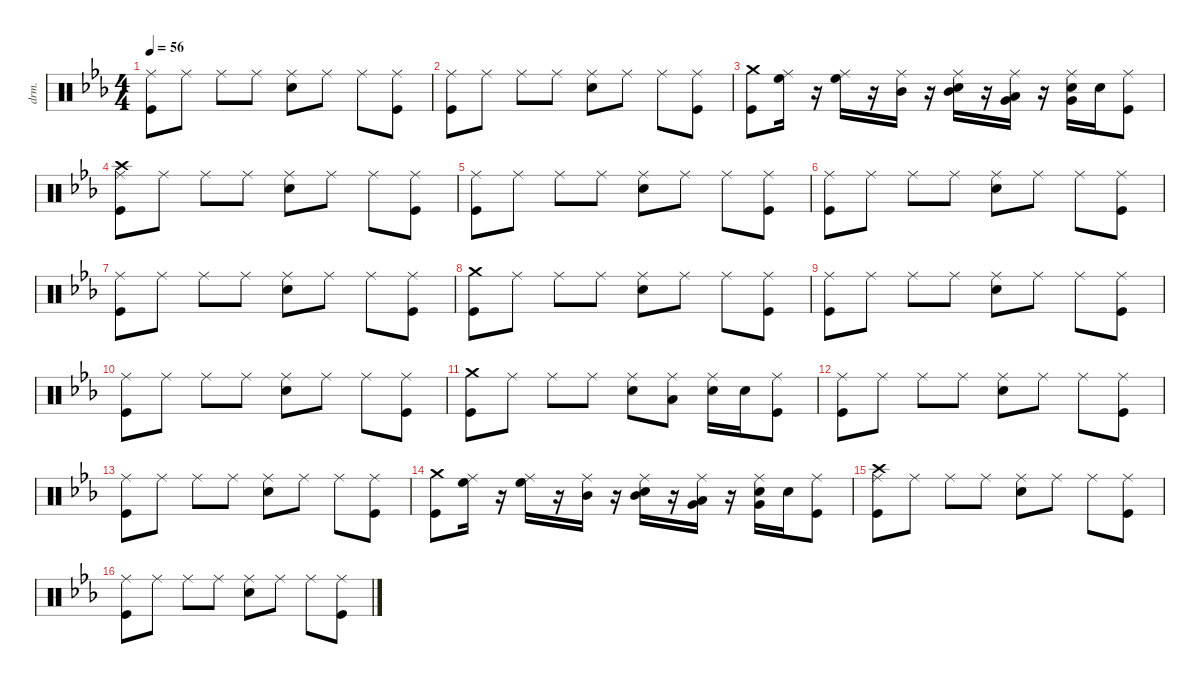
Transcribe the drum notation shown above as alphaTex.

\defaultSystemsLayout 4
\hideDynamics
\bracketExtendMode groupsimilarinstruments
\otherSystemsTrackNameOrientation horizontal
\track ("Percussion" "drm.") {instrument percussion}
\staff {score}
\articulation defaults
\ts (4 4)
\tempo 56
\clef neutral
\ks cminor
("Ride (middle)"{acc forcenatural} "Kick (hit)"{acc forcenatural}).8{dy f beam Down} "Ride (middle)"{acc forcenatural}.8{beam Down} "Ride (middle)"{acc forcenatural}.8{beam Down} "Ride (middle)"{acc forcenatural}.8{beam Down} ("Snare (hit) 2"{acc forcenatural} "Ride (middle)"{acc forcenatural}).8{beam Down} "Ride (middle)"{acc forcenatural}.8{beam Down} "Ride (middle)"{acc forcenatural}.8{beam Down} ("Kick (hit)"{acc forcenatural} "Ride (middle)"{acc forcenatural}).8{beam Down} |
("Ride (middle)"{acc forcenatural} "Kick (hit)"{acc forcenatural}).8{beam Down} "Ride (middle)"{acc forcenatural}.8{beam Down} "Ride (middle)"{acc forcenatural}.8{beam Down} "Ride (middle)"{acc forcenatural}.8{beam Down} ("Snare (hit) 2"{acc forcenatural} "Ride (middle)"{acc forcenatural}).8{beam Down} "Ride (middle)"{acc forcenatural}.8{beam Down} "Ride (middle)"{acc forcenatural}.8{beam Down} ("Kick (hit)"{acc forcenatural} "Ride (middle)"{acc forcenatural}).8{beam Down} |
("Crash medium (hit)"{acc forcenatural} "Kick (hit)"{acc forcenatural}).8{beam Down} ("High Floor Tom (hit)"{acc forcenatural} "Ride (middle)"{acc forcenatural}).16{beam Down} r.16{beam Down} ("High Floor Tom (hit)"{acc forcenatural} "Ride (middle)"{acc forcenatural}).16{beam Down} r.16{beam Down} ("Mid Tom (hit)"{acc forcenatural} "Ride (middle)"{acc forcenatural}).16{beam Down} r.16{beam Down} ("Mid Tom (hit)"{acc forcenatural} "Snare (hit) 2"{acc forcenatural} "Ride (middle)"{acc forcenatural}).16{beam Down} r.16{beam Down} ("Very Low Tom (hit)"{acc forcenatural} "Low Floor Tom (hit)"{acc forcenatural} "Ride (middle)"{acc forcenatural}).16{beam Down} r.16{beam Down} ("Very Low Tom (hit)"{acc forcenatural} "Snare (hit) 2"{acc forcenatural} "Ride (middle)"{acc forcenatural}).16{beam Down} "Snare (hit) 2"{acc forcenatural}.16{beam Down} ("Kick (hit)"{acc forcenatural} "Ride (middle)"{acc forcenatural}).8{beam Down} |
("Crash high (hit)"{acc forcenatural} "Kick (hit)"{acc forcenatural} "Ride (middle)"{acc forcenatural}).8{beam Down} "Ride (middle)"{acc forcenatural}.8{beam Down} "Ride (middle)"{acc forcenatural}.8{beam Down} "Ride (middle)"{acc forcenatural}.8{beam Down} ("Snare (hit) 2"{acc forcenatural} "Ride (middle)"{acc forcenatural}).8{beam Down} "Ride (middle)"{acc forcenatural}.8{beam Down} "Ride (middle)"{acc forcenatural}.8{beam Down} ("Kick (hit)"{acc forcenatural} "Ride (middle)"{acc forcenatural}).8{beam Down} |
("Ride (middle)"{acc forcenatural} "Kick (hit)"{acc forcenatural}).8{beam Down} "Ride (middle)"{acc forcenatural}.8{beam Down} "Ride (middle)"{acc forcenatural}.8{beam Down} "Ride (middle)"{acc forcenatural}.8{beam Down} ("Snare (hit) 2"{acc forcenatural} "Ride (middle)"{acc forcenatural}).8{beam Down} "Ride (middle)"{acc forcenatural}.8{beam Down} "Ride (middle)"{acc forcenatural}.8{beam Down} ("Kick (hit)"{acc forcenatural} "Ride (middle)"{acc forcenatural}).8{beam Down} |
("Ride (middle)"{acc forcenatural} "Kick (hit)"{acc forcenatural}).8{beam Down} "Ride (middle)"{acc forcenatural}.8{beam Down} "Ride (middle)"{acc forcenatural}.8{beam Down} "Ride (middle)"{acc forcenatural}.8{beam Down} ("Snare (hit) 2"{acc forcenatural} "Ride (middle)"{acc forcenatural}).8{beam Down} "Ride (middle)"{acc forcenatural}.8{beam Down} "Ride (middle)"{acc forcenatural}.8{beam Down} ("Kick (hit)"{acc forcenatural} "Ride (middle)"{acc forcenatural}).8{beam Down} |
("Ride (middle)"{acc forcenatural} "Kick (hit)"{acc forcenatural}).8{beam Down} "Ride (middle)"{acc forcenatural}.8{beam Down} "Ride (middle)"{acc forcenatural}.8{beam Down} "Ride (middle)"{acc forcenatural}.8{beam Down} ("Snare (hit) 2"{acc forcenatural} "Ride (middle)"{acc forcenatural}).8{beam Down} "Ride (middle)"{acc forcenatural}.8{beam Down} "Ride (middle)"{acc forcenatural}.8{beam Down} ("Kick (hit)"{acc forcenatural} "Ride (middle)"{acc forcenatural}).8{beam Down} |
("Crash medium (hit)"{acc forcenatural} "Kick (hit)"{acc forcenatural}).8{beam Down} "Ride (middle)"{acc forcenatural}.8{beam Down} "Ride (middle)"{acc forcenatural}.8{beam Down} "Ride (middle)"{acc forcenatural}.8{beam Down} ("Snare (hit) 2"{acc forcenatural} "Ride (middle)"{acc forcenatural}).8{beam Down} "Ride (middle)"{acc forcenatural}.8{beam Down} "Ride (middle)"{acc forcenatural}.8{beam Down} ("Kick (hit)"{acc forcenatural} "Ride (middle)"{acc forcenatural}).8{beam Down} |
("Ride (middle)"{acc forcenatural} "Kick (hit)"{acc forcenatural}).8{beam Down} "Ride (middle)"{acc forcenatural}.8{beam Down} "Ride (middle)"{acc forcenatural}.8{beam Down} "Ride (middle)"{acc forcenatural}.8{beam Down} ("Snare (hit) 2"{acc forcenatural} "Ride (middle)"{acc forcenatural}).8{beam Down} "Ride (middle)"{acc forcenatural}.8{beam Down} "Ride (middle)"{acc forcenatural}.8{beam Down} ("Kick (hit)"{acc forcenatural} "Ride (middle)"{acc forcenatural}).8{beam Down} |
("Ride (middle)"{acc forcenatural} "Kick (hit)"{acc forcenatural}).8{beam Down} "Ride (middle)"{acc forcenatural}.8{beam Down} "Ride (middle)"{acc forcenatural}.8{beam Down} "Ride (middle)"{acc forcenatural}.8{beam Down} ("Snare (hit) 2"{acc forcenatural} "Ride (middle)"{acc forcenatural}).8{beam Down} "Ride (middle)"{acc forcenatural}.8{beam Down} "Ride (middle)"{acc forcenatural}.8{beam Down} ("Kick (hit)"{acc forcenatural} "Ride (middle)"{acc forcenatural}).8{beam Down} |
("Crash medium (hit)"{acc forcenatural} "Kick (hit)"{acc forcenatural}).8{beam Down} "Ride (middle)"{acc forcenatural}.8{beam Down} "Ride (middle)"{acc forcenatural}.8{beam Down} "Ride (middle)"{acc forcenatural}.8{beam Down} ("Snare (hit) 2"{acc forcenatural} "Ride (middle)"{acc forcenatural}).8{beam Down} ("Low Floor Tom (hit)"{acc forcenatural} "Ride (middle)"{acc forcenatural}).8{beam Down} ("Snare (hit) 2"{acc forcenatural} "Ride (middle)"{acc forcenatural}).16{beam Down} "Snare (hit) 2"{acc forcenatural}.16{beam Down} ("Kick (hit)"{acc forcenatural} "Ride (middle)"{acc forcenatural}).8{beam Down} |
("Ride (middle)"{acc forcenatural} "Kick (hit)"{acc forcenatural}).8{beam Down} "Ride (middle)"{acc forcenatural}.8{beam Down} "Ride (middle)"{acc forcenatural}.8{beam Down} "Ride (middle)"{acc forcenatural}.8{beam Down} ("Snare (hit) 2"{acc forcenatural} "Ride (middle)"{acc forcenatural}).8{beam Down} "Ride (middle)"{acc forcenatural}.8{beam Down} "Ride (middle)"{acc forcenatural}.8{beam Down} ("Kick (hit)"{acc forcenatural} "Ride (middle)"{acc forcenatural}).8{beam Down} |
("Ride (middle)"{acc forcenatural} "Kick (hit)"{acc forcenatural}).8{beam Down} "Ride (middle)"{acc forcenatural}.8{beam Down} "Ride (middle)"{acc forcenatural}.8{beam Down} "Ride (middle)"{acc forcenatural}.8{beam Down} ("Snare (hit) 2"{acc forcenatural} "Ride (middle)"{acc forcenatural}).8{beam Down} "Ride (middle)"{acc forcenatural}.8{beam Down} "Ride (middle)"{acc forcenatural}.8{beam Down} ("Kick (hit)"{acc forcenatural} "Ride (middle)"{acc forcenatural}).8{beam Down} |
("Crash medium (hit)"{acc forcenatural} "Kick (hit)"{acc forcenatural}).8{beam Down} ("High Floor Tom (hit)"{acc forcenatural} "Ride (middle)"{acc forcenatural}).16{beam Down} r.16{beam Down} ("High Floor Tom (hit)"{acc forcenatural} "Ride (middle)"{acc forcenatural}).16{beam Down} r.16{beam Down} ("Mid Tom (hit)"{acc forcenatural} "Ride (middle)"{acc forcenatural}).16{beam Down} r.16{beam Down} ("Mid Tom (hit)"{acc forcenatural} "Snare (hit) 2"{acc forcenatural} "Ride (middle)"{acc forcenatural}).16{beam Down} r.16{beam Down} ("Very Low Tom (hit)"{acc forcenatural} "Low Floor Tom (hit)"{acc forcenatural} "Ride (middle)"{acc forcenatural}).16{beam Down} r.16{beam Down} ("Very Low Tom (hit)"{acc forcenatural} "Snare (hit) 2"{acc forcenatural} "Ride (middle)"{acc forcenatural}).16{beam Down} "Snare (hit) 2"{acc forcenatural}.16{beam Down} ("Kick (hit)"{acc forcenatural} "Ride (middle)"{acc forcenatural}).8{beam Down} |
("Crash high (hit)"{acc forcenatural} "Kick (hit)"{acc forcenatural} "Ride (middle)"{acc forcenatural}).8{beam Down} "Ride (middle)"{acc forcenatural}.8{beam Down} "Ride (middle)"{acc forcenatural}.8{beam Down} "Ride (middle)"{acc forcenatural}.8{beam Down} ("Snare (hit) 2"{acc forcenatural} "Ride (middle)"{acc forcenatural}).8{beam Down} "Ride (middle)"{acc forcenatural}.8{beam Down} "Ride (middle)"{acc forcenatural}.8{beam Down} ("Kick (hit)"{acc forcenatural} "Ride (middle)"{acc forcenatural}).8{beam Down} |
("Ride (middle)"{acc forcenatural} "Kick (hit)"{acc forcenatural}).8{beam Down} "Ride (middle)"{acc forcenatural}.8{beam Down} "Ride (middle)"{acc forcenatural}.8{beam Down} "Ride (middle)"{acc forcenatural}.8{beam Down} ("Snare (hit) 2"{acc forcenatural} "Ride (middle)"{acc forcenatural}).8{beam Down} "Ride (middle)"{acc forcenatural}.8{beam Down} "Ride (middle)"{acc forcenatural}.8{beam Down} ("Kick (hit)"{acc forcenatural} "Ride (middle)"{acc forcenatural}).8{beam Down}
